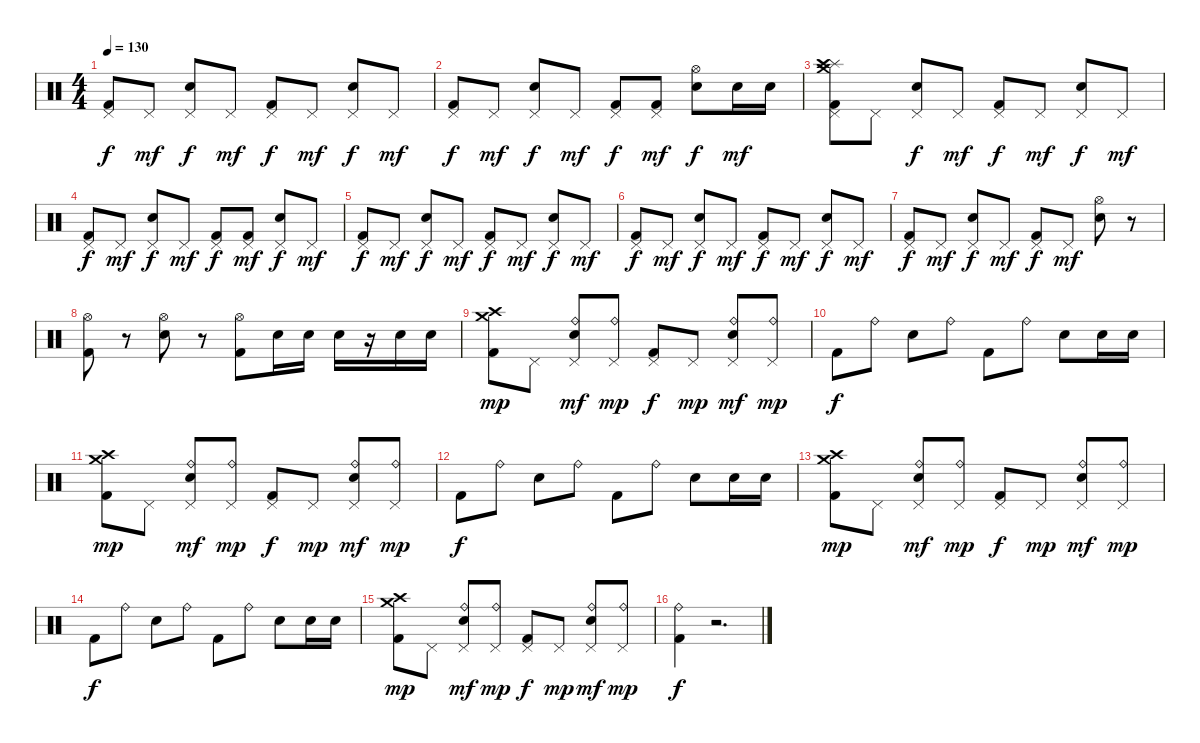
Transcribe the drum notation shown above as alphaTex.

\track "" {instrument percussion}
\staff {score}
\articulation defaults
\ts (4 4)
\tempo 130
\clef neutral
\ks c
("Pedal Hi-Hat (hit)" "Kick (hit) 2").8{dy f} "Pedal Hi-Hat (hit)".8{dy mf} ("Pedal Hi-Hat (hit)" "Snare (hit) 2").8{dy f} "Pedal Hi-Hat (hit)".8{dy mf} ("Pedal Hi-Hat (hit)" "Kick (hit) 2").8{dy f} "Pedal Hi-Hat (hit)".8{dy mf} ("Pedal Hi-Hat (hit)" "Snare (hit) 2").8{dy f} "Pedal Hi-Hat (hit)".8{dy mf} |
("Pedal Hi-Hat (hit)" "Kick (hit) 2").8{dy f} "Pedal Hi-Hat (hit)".8{dy mf} ("Pedal Hi-Hat (hit)" "Snare (hit) 2").8{dy f} "Pedal Hi-Hat (hit)".8{dy mf} ("Pedal Hi-Hat (hit)" "Kick (hit) 2").8{dy f} ("Kick (hit) 2" "Pedal Hi-Hat (hit)").8{dy mf} ("Hi-Hat (open)" "Snare (hit) 2").8{dy f} "Snare (hit) 2".16{dy mf} "Snare (hit) 2".16 |
("Crash medium (hit)" "Splash (hit)" "Crash high (hit)" "Pedal Hi-Hat (hit)" "Kick (hit) 2").8 "Pedal Hi-Hat (hit)".8 ("Pedal Hi-Hat (hit)" "Snare (hit) 2").8{dy f} "Pedal Hi-Hat (hit)".8{dy mf} ("Pedal Hi-Hat (hit)" "Kick (hit) 2").8{dy f} "Pedal Hi-Hat (hit)".8{dy mf} ("Pedal Hi-Hat (hit)" "Snare (hit) 2").8{dy f} "Pedal Hi-Hat (hit)".8{dy mf} |
("Pedal Hi-Hat (hit)" "Kick (hit) 2").8{dy f} "Pedal Hi-Hat (hit)".8{dy mf} ("Pedal Hi-Hat (hit)" "Snare (hit) 2").8{dy f} "Pedal Hi-Hat (hit)".8{dy mf} ("Pedal Hi-Hat (hit)" "Kick (hit) 2").8{dy f} ("Kick (hit) 2" "Pedal Hi-Hat (hit)").8{dy mf} ("Pedal Hi-Hat (hit)" "Snare (hit) 2").8{dy f} "Pedal Hi-Hat (hit)".8{dy mf} |
("Pedal Hi-Hat (hit)" "Kick (hit) 2").8{dy f} "Pedal Hi-Hat (hit)".8{dy mf} ("Pedal Hi-Hat (hit)" "Snare (hit) 2").8{dy f} "Pedal Hi-Hat (hit)".8{dy mf} ("Pedal Hi-Hat (hit)" "Kick (hit) 2").8{dy f} "Pedal Hi-Hat (hit)".8{dy mf} ("Pedal Hi-Hat (hit)" "Snare (hit) 2").8{dy f} "Pedal Hi-Hat (hit)".8{dy mf} |
("Pedal Hi-Hat (hit)" "Kick (hit) 2").8{dy f} "Pedal Hi-Hat (hit)".8{dy mf} ("Pedal Hi-Hat (hit)" "Snare (hit) 2").8{dy f} "Pedal Hi-Hat (hit)".8{dy mf} ("Pedal Hi-Hat (hit)" "Kick (hit) 2").8{dy f} "Pedal Hi-Hat (hit)".8{dy mf} ("Pedal Hi-Hat (hit)" "Snare (hit) 2").8{dy f} "Pedal Hi-Hat (hit)".8{dy mf} |
("Pedal Hi-Hat (hit)" "Kick (hit) 2").8{dy f} "Pedal Hi-Hat (hit)".8{dy mf} ("Pedal Hi-Hat (hit)" "Snare (hit) 2").8{dy f} "Pedal Hi-Hat (hit)".8{dy mf} ("Pedal Hi-Hat (hit)" "Kick (hit) 2").8{dy f} "Pedal Hi-Hat (hit)".8{dy mf} ("Hi-Hat (open)" "Snare (hit) 2").8 r.8 |
("Hi-Hat (open)" "Kick (hit) 2").8 r.8 ("Hi-Hat (open)" "Snare (hit) 2").8 r.8 ("Hi-Hat (open)" "Kick (hit) 2").8 "Snare (hit) 2".16 "Snare (hit) 2".16 "Snare (hit) 2".16 r.16 "Snare (hit) 2".16 "Snare (hit) 2".16 |
("Crash medium (hit)" "Crash high (hit)" "Kick (hit) 2").8{dy mp} "Pedal Hi-Hat (hit)".8 ("Ride (bell)" "Pedal Hi-Hat (hit)" "Snare (hit) 2").8{dy mf} ("Ride (bell)" "Pedal Hi-Hat (hit)").8{dy mp} ("Pedal Hi-Hat (hit)" "Kick (hit) 2").8{dy f} "Pedal Hi-Hat (hit)".8{dy mp} ("Ride (bell)" "Pedal Hi-Hat (hit)" "Snare (hit) 2").8{dy mf} ("Ride (bell)" "Pedal Hi-Hat (hit)").8{dy mp} |
"Kick (hit) 2".8{dy f} "Ride (bell)".8 "Snare (hit) 2".8 "Ride (bell)".8 "Kick (hit) 2".8 "Ride (bell)".8 "Snare (hit) 2".8 "Snare (hit) 2".16 "Snare (hit) 2".16 |
("Crash medium (hit)" "Crash high (hit)" "Kick (hit) 2").8{dy mp} "Pedal Hi-Hat (hit)".8 ("Ride (bell)" "Pedal Hi-Hat (hit)" "Snare (hit) 2").8{dy mf} ("Ride (bell)" "Pedal Hi-Hat (hit)").8{dy mp} ("Pedal Hi-Hat (hit)" "Kick (hit) 2").8{dy f} "Pedal Hi-Hat (hit)".8{dy mp} ("Ride (bell)" "Pedal Hi-Hat (hit)" "Snare (hit) 2").8{dy mf} ("Ride (bell)" "Pedal Hi-Hat (hit)").8{dy mp} |
"Kick (hit) 2".8{dy f} "Ride (bell)".8 "Snare (hit) 2".8 "Ride (bell)".8 "Kick (hit) 2".8 "Ride (bell)".8 "Snare (hit) 2".8 "Snare (hit) 2".16 "Snare (hit) 2".16 |
("Crash medium (hit)" "Crash high (hit)" "Kick (hit) 2").8{dy mp} "Pedal Hi-Hat (hit)".8 ("Ride (bell)" "Pedal Hi-Hat (hit)" "Snare (hit) 2").8{dy mf} ("Ride (bell)" "Pedal Hi-Hat (hit)").8{dy mp} ("Pedal Hi-Hat (hit)" "Kick (hit) 2").8{dy f} "Pedal Hi-Hat (hit)".8{dy mp} ("Ride (bell)" "Pedal Hi-Hat (hit)" "Snare (hit) 2").8{dy mf} ("Ride (bell)" "Pedal Hi-Hat (hit)").8{dy mp} |
"Kick (hit) 2".8{dy f} "Ride (bell)".8 "Snare (hit) 2".8 "Ride (bell)".8 "Kick (hit) 2".8 "Ride (bell)".8 "Snare (hit) 2".8 "Snare (hit) 2".16 "Snare (hit) 2".16 |
("Crash medium (hit)" "Crash high (hit)" "Kick (hit) 2").8{dy mp} "Pedal Hi-Hat (hit)".8 ("Ride (bell)" "Pedal Hi-Hat (hit)" "Snare (hit) 2").8{dy mf} ("Ride (bell)" "Pedal Hi-Hat (hit)").8{dy mp} ("Pedal Hi-Hat (hit)" "Kick (hit) 2").8{dy f} "Pedal Hi-Hat (hit)".8{dy mp} ("Ride (bell)" "Pedal Hi-Hat (hit)" "Snare (hit) 2").8{dy mf} ("Ride (bell)" "Pedal Hi-Hat (hit)").8{dy mp} |
("Ride (bell)" "Kick (hit) 2").4{dy f} r.2{d}
